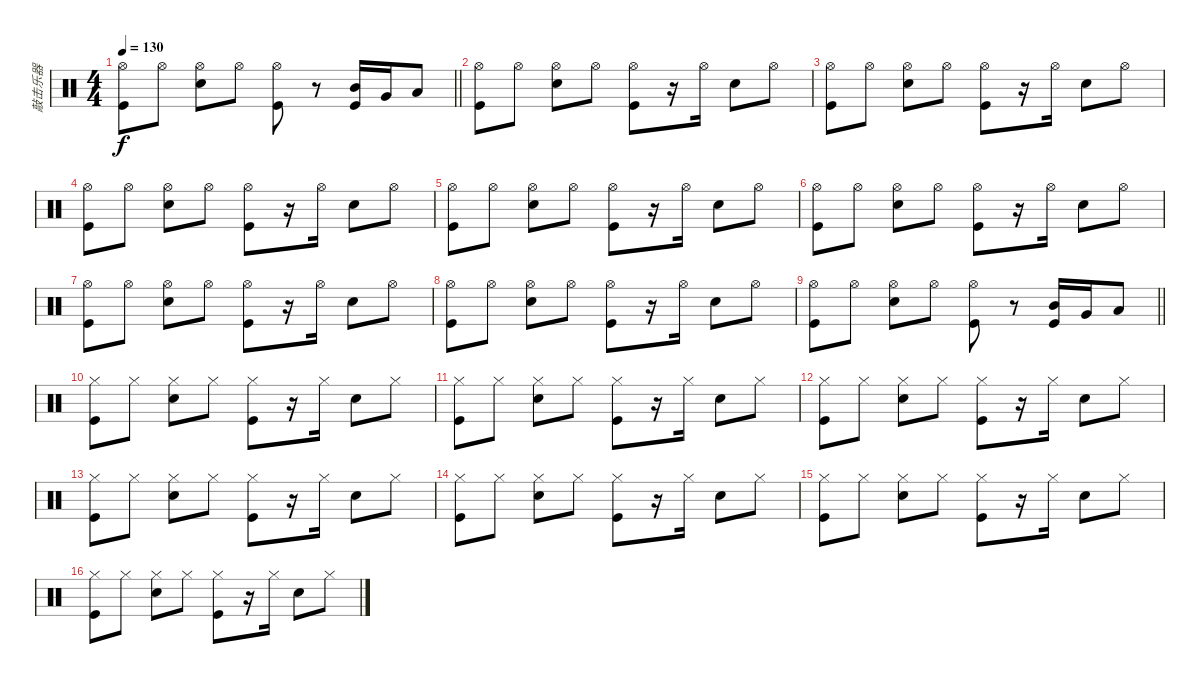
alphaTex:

\track ("敲击乐器" "敲击乐器") {instrument percussion}
\staff {score}
\articulation defaults
\ts (4 4)
\tempo 130
\clef neutral
\barLineRight lightlight
\ks c
("Hi-Hat (open)" "Kick (hit)").8{dy f} "Hi-Hat (open)".8 ("Hi-Hat (open)" "Snare (hit) 2").8 "Hi-Hat (open)".8 ("Hi-Hat (open)" "Kick (hit)").8 r.8 ("Mid Tom (hit)" "Kick (hit)").16 "Very Low Tom (hit)".16 "Low Floor Tom (hit)".8 |
("Hi-Hat (open)" "Kick (hit)").8 "Hi-Hat (open)".8 ("Hi-Hat (open)" "Snare (hit) 2").8 "Hi-Hat (open)".8 ("Hi-Hat (open)" "Kick (hit)").8 r.16 "Hi-Hat (open)".16 "Snare (hit) 2".8 "Hi-Hat (open)".8 |
("Hi-Hat (open)" "Kick (hit)").8 "Hi-Hat (open)".8 ("Hi-Hat (open)" "Snare (hit) 2").8 "Hi-Hat (open)".8 ("Hi-Hat (open)" "Kick (hit)").8 r.16 "Hi-Hat (open)".16 "Snare (hit) 2".8 "Hi-Hat (open)".8 |
("Hi-Hat (open)" "Kick (hit)").8 "Hi-Hat (open)".8 ("Hi-Hat (open)" "Snare (hit) 2").8 "Hi-Hat (open)".8 ("Hi-Hat (open)" "Kick (hit)").8 r.16 "Hi-Hat (open)".16 "Snare (hit) 2".8 "Hi-Hat (open)".8 |
("Hi-Hat (open)" "Kick (hit)").8 "Hi-Hat (open)".8 ("Hi-Hat (open)" "Snare (hit) 2").8 "Hi-Hat (open)".8 ("Hi-Hat (open)" "Kick (hit)").8 r.16 "Hi-Hat (open)".16 "Snare (hit) 2".8 "Hi-Hat (open)".8 |
("Hi-Hat (open)" "Kick (hit)").8 "Hi-Hat (open)".8 ("Hi-Hat (open)" "Snare (hit) 2").8 "Hi-Hat (open)".8 ("Hi-Hat (open)" "Kick (hit)").8 r.16 "Hi-Hat (open)".16 "Snare (hit) 2".8 "Hi-Hat (open)".8 |
("Hi-Hat (open)" "Kick (hit)").8 "Hi-Hat (open)".8 ("Hi-Hat (open)" "Snare (hit) 2").8 "Hi-Hat (open)".8 ("Hi-Hat (open)" "Kick (hit)").8 r.16 "Hi-Hat (open)".16 "Snare (hit) 2".8 "Hi-Hat (open)".8 |
("Hi-Hat (open)" "Kick (hit)").8 "Hi-Hat (open)".8 ("Hi-Hat (open)" "Snare (hit) 2").8 "Hi-Hat (open)".8 ("Hi-Hat (open)" "Kick (hit)").8 r.16 "Hi-Hat (open)".16 "Snare (hit) 2".8 "Hi-Hat (open)".8 |
\barLineRight lightlight
("Hi-Hat (open)" "Kick (hit)").8 "Hi-Hat (open)".8 ("Hi-Hat (open)" "Snare (hit) 2").8 "Hi-Hat (open)".8 ("Hi-Hat (open)" "Kick (hit)").8 r.8 ("Mid Tom (hit)" "Kick (hit)").16 "Very Low Tom (hit)".16 "Low Floor Tom (hit)".8 |
("Hi-Hat (closed)" "Kick (hit)").8 "Hi-Hat (closed)".8 ("Hi-Hat (closed)" "Snare (hit) 2").8 "Hi-Hat (closed)".8 ("Hi-Hat (closed)" "Kick (hit)").8 r.16 "Hi-Hat (closed)".16 "Snare (hit) 2".8 "Hi-Hat (closed)".8 |
("Hi-Hat (closed)" "Kick (hit)").8 "Hi-Hat (closed)".8 ("Hi-Hat (closed)" "Snare (hit) 2").8 "Hi-Hat (closed)".8 ("Hi-Hat (closed)" "Kick (hit)").8 r.16 "Hi-Hat (closed)".16 "Snare (hit) 2".8 "Hi-Hat (closed)".8 |
("Hi-Hat (closed)" "Kick (hit)").8 "Hi-Hat (closed)".8 ("Hi-Hat (closed)" "Snare (hit) 2").8 "Hi-Hat (closed)".8 ("Hi-Hat (closed)" "Kick (hit)").8 r.16 "Hi-Hat (closed)".16 "Snare (hit) 2".8 "Hi-Hat (closed)".8 |
("Hi-Hat (closed)" "Kick (hit)").8 "Hi-Hat (closed)".8 ("Hi-Hat (closed)" "Snare (hit) 2").8 "Hi-Hat (closed)".8 ("Hi-Hat (closed)" "Kick (hit)").8 r.16 "Hi-Hat (closed)".16 "Snare (hit) 2".8 "Hi-Hat (closed)".8 |
("Hi-Hat (closed)" "Kick (hit)").8 "Hi-Hat (closed)".8 ("Hi-Hat (closed)" "Snare (hit) 2").8 "Hi-Hat (closed)".8 ("Hi-Hat (closed)" "Kick (hit)").8 r.16 "Hi-Hat (closed)".16 "Snare (hit) 2".8 "Hi-Hat (closed)".8 |
("Hi-Hat (closed)" "Kick (hit)").8 "Hi-Hat (closed)".8 ("Hi-Hat (closed)" "Snare (hit) 2").8 "Hi-Hat (closed)".8 ("Hi-Hat (closed)" "Kick (hit)").8 r.16 "Hi-Hat (closed)".16 "Snare (hit) 2".8 "Hi-Hat (closed)".8 |
("Hi-Hat (closed)" "Kick (hit)").8 "Hi-Hat (closed)".8 ("Hi-Hat (closed)" "Snare (hit) 2").8 "Hi-Hat (closed)".8 ("Hi-Hat (closed)" "Kick (hit)").8 r.16 "Hi-Hat (closed)".16 "Snare (hit) 2".8 "Hi-Hat (closed)".8
